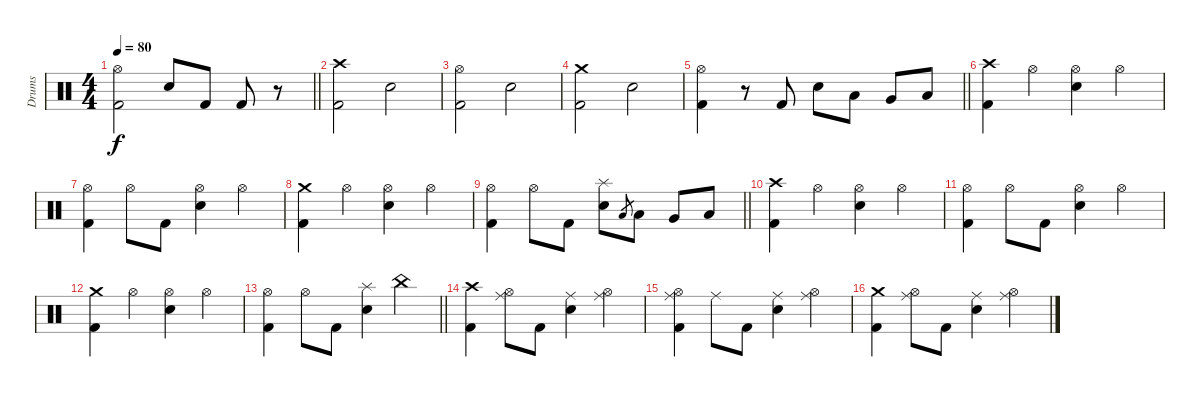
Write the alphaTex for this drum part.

\track ("Drums" "Drums") {instrument percussion}
\staff {score}
\articulation defaults
\ts (4 4)
\tempo 80
\clef neutral
\barLineRight lightlight
\ks c
("Kick (hit) 2" "Hi-Hat (open)").2{dy f} "Electric Snare (hit)".8 "Kick (hit) 2".8 "Kick (hit) 2".8 r.8 |
("Kick (hit) 2" "Crash high (hit)").2 "Electric Snare (hit)".2 |
("Kick (hit) 2" "Hi-Hat (open)").2 "Electric Snare (hit)".2 |
("Kick (hit) 2" "Crash medium (hit)").2 "Electric Snare (hit)".2 |
\barLineRight lightlight
("Kick (hit) 2" "Hi-Hat (open)").4 r.8 "Kick (hit) 2".8 "Electric Snare (hit)".8 "Low Tom (hit)".8 "Very Low Tom (hit)".8 "Low Floor Tom (hit)".8 |
("Kick (hit) 2" "Crash high (hit)").4 "Hi-Hat (open)".4 ("Electric Snare (hit)" "Hi-Hat (open)").4 "Hi-Hat (open)".4 |
("Kick (hit) 2" "Hi-Hat (open)").4 "Hi-Hat (open)".8 "Kick (hit) 2".8 ("Electric Snare (hit)" "Hi-Hat (open)").4 "Hi-Hat (open)".4 |
("Kick (hit) 2" "Crash medium (hit)").4 "Hi-Hat (open)".4 ("Electric Snare (hit)" "Hi-Hat (open)").4 "Hi-Hat (open)".4 |
\barLineRight lightlight
("Kick (hit) 2" "Hi-Hat (open)").4 "Hi-Hat (open)".8 "Kick (hit) 2".8 ("Electric Snare (hit)" "Splash (hit)").8 "Low Tom (hit)".8{gr} "Low Tom (hit)".8 "Very Low Tom (hit)".8 "Low Floor Tom (hit)".8 |
("Kick (hit) 2" "Crash high (hit)").4 "Hi-Hat (open)".4 ("Electric Snare (hit)" "Hi-Hat (open)").4 "Hi-Hat (open)".4 |
("Kick (hit) 2" "Hi-Hat (open)").4 "Hi-Hat (open)".8 "Kick (hit) 2".8 ("Electric Snare (hit)" "Hi-Hat (open)").4 "Hi-Hat (open)".4 |
("Kick (hit) 2" "Crash medium (hit)").4 "Hi-Hat (open)".4 ("Electric Snare (hit)" "Hi-Hat (open)").4 "Hi-Hat (open)".4 |
\barLineRight lightlight
("Kick (hit) 2" "Hi-Hat (open)").4 "Hi-Hat (open)".8 "Kick (hit) 2".8 ("Electric Snare (hit)" "Splash (hit)").4 "China (hit)".4 |
("Kick (hit) 2" "Crash high (hit)").4 ("Ride (middle)" "Hi-Hat (open)").8 "Kick (hit) 2".8 ("Electric Snare (hit)" "Ride (middle)").4 ("Ride (middle)" "Hi-Hat (open)").4 |
("Kick (hit) 2" "Ride (middle)" "Hi-Hat (open)").4 "Ride (middle)".8 "Kick (hit) 2".8 ("Electric Snare (hit)" "Ride (middle)").4 ("Ride (middle)" "Hi-Hat (open)").4 |
("Kick (hit) 2" "Crash medium (hit)").4 ("Ride (middle)" "Hi-Hat (open)").8 "Kick (hit) 2".8 ("Electric Snare (hit)" "Ride (middle)").4 ("Ride (middle)" "Hi-Hat (open)").4
